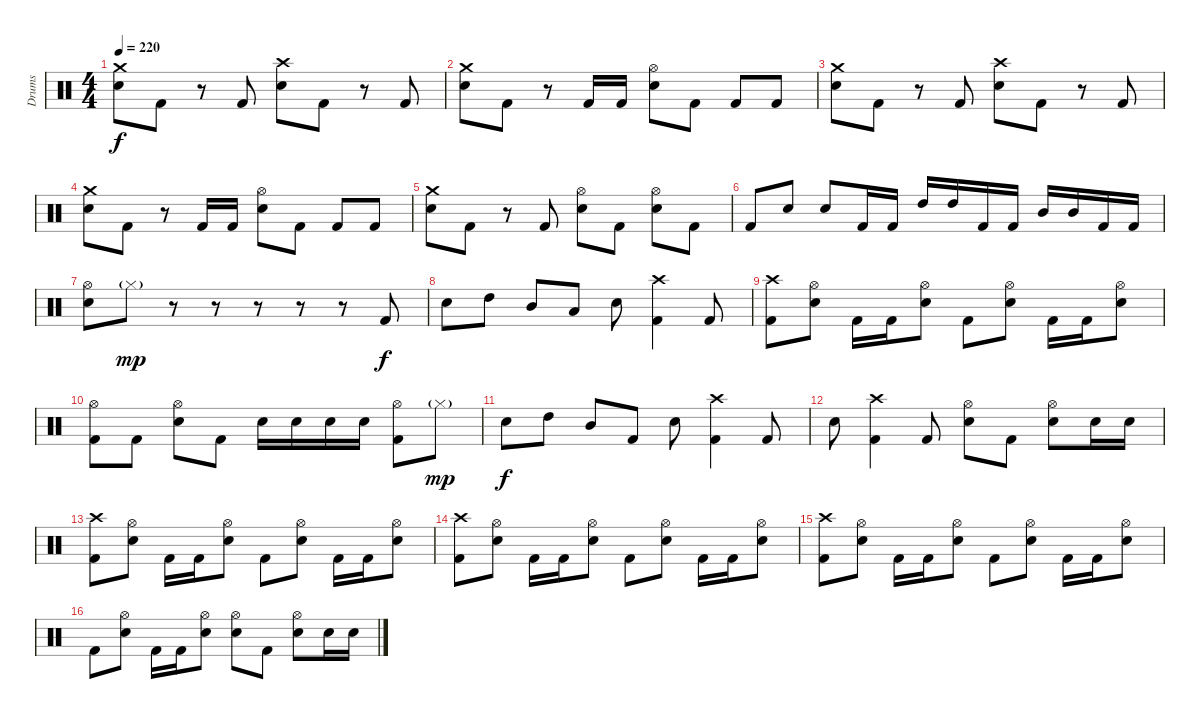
\track ("Drums" "Drums") {instrument percussion}
\staff {score}
\articulation defaults
\ts (4 4)
\tempo 220
\clef neutral
\ks c
("Crash medium (hit)" "Electric Snare (hit)").8{dy f} "Kick (hit) 2".8 r.8 "Kick (hit) 2".8 ("Crash high (hit)" "Electric Snare (hit)").8 "Kick (hit) 2".8 r.8 "Kick (hit) 2".8 |
("Crash medium (hit)" "Electric Snare (hit)").8 "Kick (hit) 2".8 r.8 "Kick (hit) 2".16 "Kick (hit) 2".16 ("Hi-Hat (open)" "Electric Snare (hit)").8 "Kick (hit) 2".8 "Kick (hit) 2".8 "Kick (hit) 2".8 |
("Crash medium (hit)" "Electric Snare (hit)").8 "Kick (hit) 2".8 r.8 "Kick (hit) 2".8 ("Crash high (hit)" "Electric Snare (hit)").8 "Kick (hit) 2".8 r.8 "Kick (hit) 2".8 |
("Crash medium (hit)" "Electric Snare (hit)").8 "Kick (hit) 2".8 r.8 "Kick (hit) 2".16 "Kick (hit) 2".16 ("Hi-Hat (open)" "Electric Snare (hit)").8 "Kick (hit) 2".8 "Kick (hit) 2".8 "Kick (hit) 2".8 |
("Crash medium (hit)" "Electric Snare (hit)").8 "Kick (hit) 2".8 r.8 "Kick (hit) 2".8 ("Hi-Hat (open)" "Electric Snare (hit)").8 "Kick (hit) 2".8 ("Hi-Hat (open)" "Electric Snare (hit)").8 "Kick (hit) 2".8 |
"Kick (hit) 2".8 "Electric Snare (hit)".8 "Electric Snare (hit)".8 "Kick (hit) 2".16 "Kick (hit) 2".16 "High Tom (hit)".16 "High Tom (hit)".16 "Kick (hit) 2".16 "Kick (hit) 2".16 "Mid Tom (hit)".16 "Mid Tom (hit)".16 "Kick (hit) 2".16 "Kick (hit) 2".16 |
("Hi-Hat (open)" "Electric Snare (hit)").8 "Hi-Hat (closed)"{g}.8{dy mp} r.8 r.8 r.8 r.8 r.8 "Kick (hit) 2".8{dy f} |
"Electric Snare (hit)".8 "High Tom (hit)".8 "Mid Tom (hit)".8 "Low Floor Tom (hit)".8 "Electric Snare (hit)".8 ("Crash high (hit)" "Kick (hit) 2").4 "Kick (hit) 2".8 |
("Crash high (hit)" "Kick (hit) 2").8 ("Hi-Hat (open)" "Electric Snare (hit)").8 "Kick (hit) 2".16 "Kick (hit) 2".16 ("Hi-Hat (open)" "Electric Snare (hit)").8 "Kick (hit) 2".8 ("Hi-Hat (open)" "Electric Snare (hit)").8 "Kick (hit) 2".16 "Kick (hit) 2".16 ("Hi-Hat (open)" "Electric Snare (hit)").8 |
("Hi-Hat (open)" "Kick (hit) 2").8 "Kick (hit) 2".8 ("Hi-Hat (open)" "Electric Snare (hit)").8 "Kick (hit) 2".8 "Electric Snare (hit)".16 "Electric Snare (hit)".16 "Electric Snare (hit)".16 "Electric Snare (hit)".16 ("Hi-Hat (open)" "Kick (hit) 2").8 "Hi-Hat (closed)"{g}.8{dy mp} |
"Electric Snare (hit)".8{dy f} "High Tom (hit)".8 "Mid Tom (hit)".8 "Kick (hit) 2".8 "Electric Snare (hit)".8 ("Crash high (hit)" "Kick (hit) 2").4 "Kick (hit) 2".8 |
"Electric Snare (hit)".8 ("Crash high (hit)" "Kick (hit) 2").4 "Kick (hit) 2".8 ("Hi-Hat (open)" "Electric Snare (hit)").8 "Kick (hit) 2".8 ("Hi-Hat (open)" "Electric Snare (hit)").8 "Electric Snare (hit)".16 "Electric Snare (hit)".16 |
("Crash high (hit)" "Kick (hit) 2").8 ("Hi-Hat (open)" "Electric Snare (hit)").8 "Kick (hit) 2".16 "Kick (hit) 2".16 ("Hi-Hat (open)" "Electric Snare (hit)").8 "Kick (hit) 2".8 ("Hi-Hat (open)" "Electric Snare (hit)").8 "Kick (hit) 2".16 "Kick (hit) 2".16 ("Hi-Hat (open)" "Electric Snare (hit)").8 |
("Crash high (hit)" "Kick (hit) 2").8 ("Hi-Hat (open)" "Electric Snare (hit)").8 "Kick (hit) 2".16 "Kick (hit) 2".16 ("Hi-Hat (open)" "Electric Snare (hit)").8 "Kick (hit) 2".8 ("Hi-Hat (open)" "Electric Snare (hit)").8 "Kick (hit) 2".16 "Kick (hit) 2".16 ("Hi-Hat (open)" "Electric Snare (hit)").8 |
("Crash high (hit)" "Kick (hit) 2").8 ("Hi-Hat (open)" "Electric Snare (hit)").8 "Kick (hit) 2".16 "Kick (hit) 2".16 ("Hi-Hat (open)" "Electric Snare (hit)").8 "Kick (hit) 2".8 ("Hi-Hat (open)" "Electric Snare (hit)").8 "Kick (hit) 2".16 "Kick (hit) 2".16 ("Hi-Hat (open)" "Electric Snare (hit)").8 |
"Kick (hit) 2".8 ("Hi-Hat (open)" "Electric Snare (hit)").8 "Kick (hit) 2".16 "Kick (hit) 2".16 ("Hi-Hat (open)" "Electric Snare (hit)").8 ("Hi-Hat (open)" "Electric Snare (hit)").8 "Kick (hit) 2".8 ("Hi-Hat (open)" "Electric Snare (hit)").8 "Electric Snare (hit)".16 "Electric Snare (hit)".16
